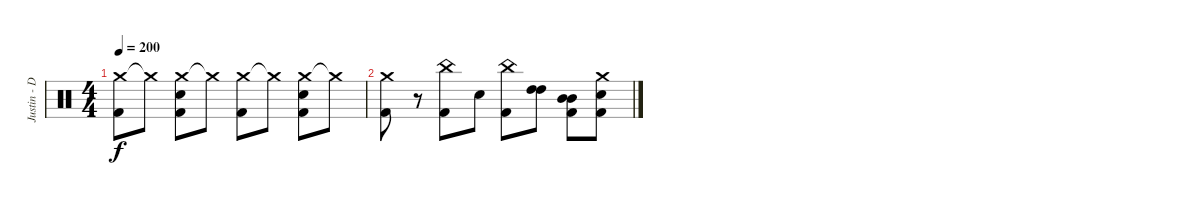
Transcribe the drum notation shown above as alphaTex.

\track ("Justin - Drums" "Justin - D") {instrument percussion}
\staff {score}
\articulation defaults
\ts (4 4)
\tempo 200
\clef neutral
\ks c
("Crash medium (hit)" "Kick (hit) 2").8{dy f} "Crash medium (hit)"{t}.8 ("Crash medium (hit)" "Snare (hit) 2" "Kick (hit) 2").8 "Crash medium (hit)"{t}.8 ("Crash medium (hit)" "Kick (hit) 2").8 "Crash medium (hit)"{t}.8 ("Crash medium (hit)" "Snare (hit) 2" "Kick (hit) 2").8 "Crash medium (hit)"{t}.8 |
("Crash medium (hit)" "Kick (hit) 2").8 r.8 ("China (hit)" "Kick (hit) 2").8 "Snare (hit) 2".8 ("China (hit)" "Kick (hit) 2").8 ("High Tom (hit)" "High Tom (hit)").8 ("Mid Tom (hit)" "Mid Tom (hit)" "Kick (hit) 2").8 ("Crash medium (hit)" "Snare (hit) 2" "Kick (hit) 2").8
